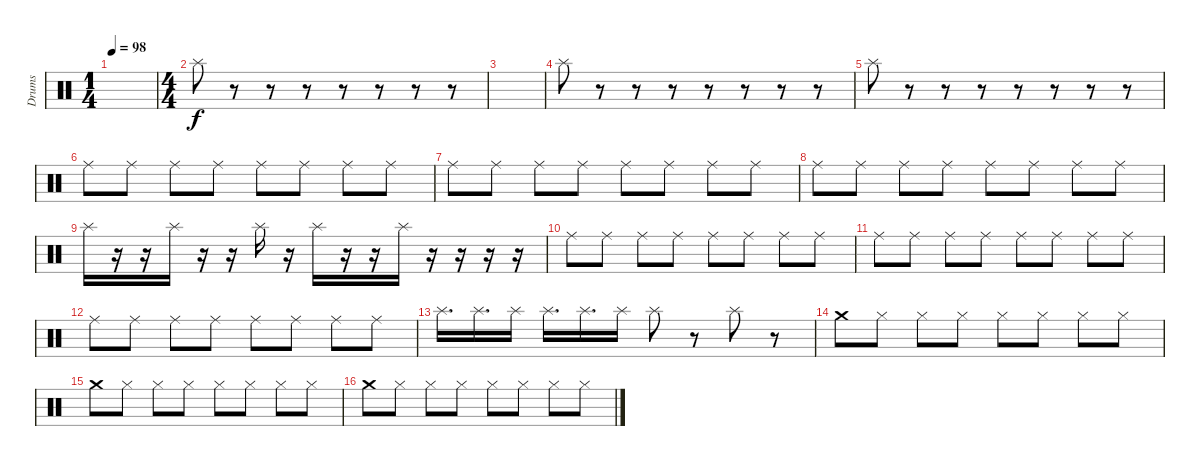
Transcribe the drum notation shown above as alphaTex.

\track ("Drums" "Drums") {instrument percussion}
\staff {score}
\articulation defaults
\ts (1 4)
\tempo 98
\clef neutral
\ks c
|
\ts (4 4)
"Splash (hit)".8 r.8 r.8 r.8 r.8 r.8 r.8 r.8 |
|
"Splash (hit)".8 r.8 r.8 r.8 r.8 r.8 r.8 r.8 |
"Splash (hit)".8 r.8 r.8 r.8 r.8 r.8 r.8 r.8 |
"Ride (middle)".8 "Ride (middle)".8 "Ride (middle)".8 "Ride (middle)".8 "Ride (middle)".8 "Ride (middle)".8 "Ride (middle)".8 "Ride (middle)".8 |
"Ride (middle)".8 "Ride (middle)".8 "Ride (middle)".8 "Ride (middle)".8 "Ride (middle)".8 "Ride (middle)".8 "Ride (middle)".8 "Ride (middle)".8 |
"Ride (middle)".8 "Ride (middle)".8 "Ride (middle)".8 "Ride (middle)".8 "Ride (middle)".8 "Ride (middle)".8 "Ride (middle)".8 "Ride (middle)".8 |
"Splash (hit)".16 r.16 r.16 "Splash (hit)".16 r.16 r.16 "Splash (hit)".16 r.16 "Splash (hit)".16 r.16 r.16 "Splash (hit)".16 r.16 r.16 r.16 r.16 |
"Ride (middle)".8 "Ride (middle)".8 "Ride (middle)".8 "Ride (middle)".8 "Ride (middle)".8 "Ride (middle)".8 "Ride (middle)".8 "Ride (middle)".8 |
"Ride (middle)".8 "Ride (middle)".8 "Ride (middle)".8 "Ride (middle)".8 "Ride (middle)".8 "Ride (middle)".8 "Ride (middle)".8 "Ride (middle)".8 |
"Ride (middle)".8 "Ride (middle)".8 "Ride (middle)".8 "Ride (middle)".8 "Ride (middle)".8 "Ride (middle)".8 "Ride (middle)".8 "Ride (middle)".8 |
"Splash (hit)".16{d} "Splash (hit)".16{d} "Splash (hit)".16 "Splash (hit)".16{d} "Splash (hit)".16{d} "Splash (hit)".16 "Splash (hit)".8 r.8 "Splash (hit)".8 r.8 |
"Crash medium (hit)".8 "Hi-Hat (closed)".8 "Hi-Hat (closed)".8 "Hi-Hat (closed)".8 "Hi-Hat (closed)".8 "Hi-Hat (closed)".8 "Hi-Hat (closed)".8 "Hi-Hat (closed)".8 |
"Crash medium (hit)".8 "Hi-Hat (closed)".8 "Hi-Hat (closed)".8 "Hi-Hat (closed)".8 "Hi-Hat (closed)".8 "Hi-Hat (closed)".8 "Hi-Hat (closed)".8 "Hi-Hat (closed)".8 |
"Crash medium (hit)".8 "Hi-Hat (closed)".8 "Hi-Hat (closed)".8 "Hi-Hat (closed)".8 "Hi-Hat (closed)".8 "Hi-Hat (closed)".8 "Hi-Hat (closed)".8 "Hi-Hat (closed)".8
